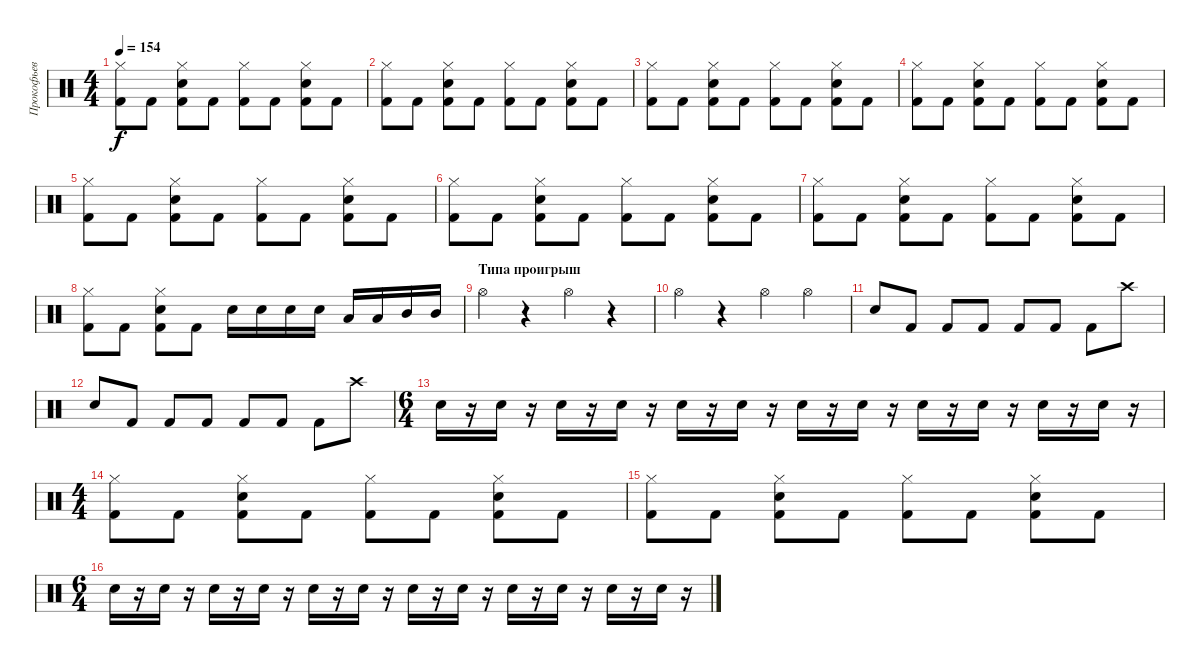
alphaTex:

\track ("Прокофьев" "Прокофьев") {instrument percussion}
\staff {score}
\articulation defaults
\ts (4 4)
\tempo 154
\clef neutral
\ks c
("Hi-Hat (closed)" "Kick (hit) 2").8{dy f} "Kick (hit) 2".8 ("Hi-Hat (closed)" "Snare (hit) 2" "Kick (hit) 2").8 "Kick (hit) 2".8 ("Hi-Hat (closed)" "Kick (hit) 2").8 "Kick (hit) 2".8 ("Hi-Hat (closed)" "Snare (hit) 2" "Kick (hit) 2").8 "Kick (hit) 2".8 |
("Hi-Hat (closed)" "Kick (hit) 2").8 "Kick (hit) 2".8 ("Hi-Hat (closed)" "Snare (hit) 2" "Kick (hit) 2").8 "Kick (hit) 2".8 ("Hi-Hat (closed)" "Kick (hit) 2").8 "Kick (hit) 2".8 ("Hi-Hat (closed)" "Snare (hit) 2" "Kick (hit) 2").8 "Kick (hit) 2".8 |
("Hi-Hat (closed)" "Kick (hit) 2").8 "Kick (hit) 2".8 ("Hi-Hat (closed)" "Snare (hit) 2" "Kick (hit) 2").8 "Kick (hit) 2".8 ("Hi-Hat (closed)" "Kick (hit) 2").8 "Kick (hit) 2".8 ("Hi-Hat (closed)" "Snare (hit) 2" "Kick (hit) 2").8 "Kick (hit) 2".8 |
("Hi-Hat (closed)" "Kick (hit) 2").8 "Kick (hit) 2".8 ("Hi-Hat (closed)" "Snare (hit) 2" "Kick (hit) 2").8 "Kick (hit) 2".8 ("Hi-Hat (closed)" "Kick (hit) 2").8 "Kick (hit) 2".8 ("Hi-Hat (closed)" "Snare (hit) 2" "Kick (hit) 2").8 "Kick (hit) 2".8 |
("Hi-Hat (closed)" "Kick (hit) 2").8 "Kick (hit) 2".8 ("Hi-Hat (closed)" "Snare (hit) 2" "Kick (hit) 2").8 "Kick (hit) 2".8 ("Hi-Hat (closed)" "Kick (hit) 2").8 "Kick (hit) 2".8 ("Hi-Hat (closed)" "Snare (hit) 2" "Kick (hit) 2").8 "Kick (hit) 2".8 |
("Hi-Hat (closed)" "Kick (hit) 2").8 "Kick (hit) 2".8 ("Hi-Hat (closed)" "Snare (hit) 2" "Kick (hit) 2").8 "Kick (hit) 2".8 ("Hi-Hat (closed)" "Kick (hit) 2").8 "Kick (hit) 2".8 ("Hi-Hat (closed)" "Snare (hit) 2" "Kick (hit) 2").8 "Kick (hit) 2".8 |
("Hi-Hat (closed)" "Kick (hit) 2").8 "Kick (hit) 2".8 ("Hi-Hat (closed)" "Snare (hit) 2" "Kick (hit) 2").8 "Kick (hit) 2".8 ("Hi-Hat (closed)" "Kick (hit) 2").8 "Kick (hit) 2".8 ("Hi-Hat (closed)" "Snare (hit) 2" "Kick (hit) 2").8 "Kick (hit) 2".8 |
("Hi-Hat (closed)" "Kick (hit) 2").8 "Kick (hit) 2".8 ("Hi-Hat (closed)" "Snare (hit) 2" "Kick (hit) 2").8 "Kick (hit) 2".8 "Snare (hit) 2".16 "Snare (hit) 2".16 "Snare (hit) 2".16 "Snare (hit) 2".16 "Low Tom (hit)".16 "Low Tom (hit)".16 "Mid Tom (hit)".16 "Mid Tom (hit)".16 |
\section ("" "Типа проигрыш")
"Hi-Hat (open)".4 r.4 "Hi-Hat (open)".4 r.4 |
"Hi-Hat (open)".4 r.4 "Hi-Hat (open)".4 "Hi-Hat (open)".4 |
"Snare (hit) 2".8 "Kick (hit) 2".8 "Kick (hit) 2".8 "Kick (hit) 2".8 "Kick (hit) 2".8 "Kick (hit) 2".8 "Kick (hit) 2".8 "Crash high (hit)".8 |
"Snare (hit) 2".8 "Kick (hit) 2".8 "Kick (hit) 2".8 "Kick (hit) 2".8 "Kick (hit) 2".8 "Kick (hit) 2".8 "Kick (hit) 2".8 "Crash high (hit)".8 |
\ts (6 4)
"Snare (hit) 2".16 r.16 "Snare (hit) 2".16 r.16 "Snare (hit) 2".16 r.16 "Snare (hit) 2".16 r.16 "Snare (hit) 2".16 r.16 "Snare (hit) 2".16 r.16 "Snare (hit) 2".16 r.16 "Snare (hit) 2".16 r.16 "Snare (hit) 2".16 r.16 "Snare (hit) 2".16 r.16 "Snare (hit) 2".16 r.16 "Snare (hit) 2".16 r.16 |
\ts (4 4)
("Hi-Hat (closed)" "Kick (hit) 2").8 "Kick (hit) 2".8 ("Hi-Hat (closed)" "Snare (hit) 2" "Kick (hit) 2").8 "Kick (hit) 2".8 ("Hi-Hat (closed)" "Kick (hit) 2").8 "Kick (hit) 2".8 ("Hi-Hat (closed)" "Snare (hit) 2" "Kick (hit) 2").8 "Kick (hit) 2".8 |
("Hi-Hat (closed)" "Kick (hit) 2").8 "Kick (hit) 2".8 ("Hi-Hat (closed)" "Snare (hit) 2" "Kick (hit) 2").8 "Kick (hit) 2".8 ("Hi-Hat (closed)" "Kick (hit) 2").8 "Kick (hit) 2".8 ("Hi-Hat (closed)" "Snare (hit) 2" "Kick (hit) 2").8 "Kick (hit) 2".8 |
\ts (6 4)
"Snare (hit) 2".16 r.16 "Snare (hit) 2".16 r.16 "Snare (hit) 2".16 r.16 "Snare (hit) 2".16 r.16 "Snare (hit) 2".16 r.16 "Snare (hit) 2".16 r.16 "Snare (hit) 2".16 r.16 "Snare (hit) 2".16 r.16 "Snare (hit) 2".16 r.16 "Snare (hit) 2".16 r.16 "Snare (hit) 2".16 r.16 "Snare (hit) 2".16 r.16
